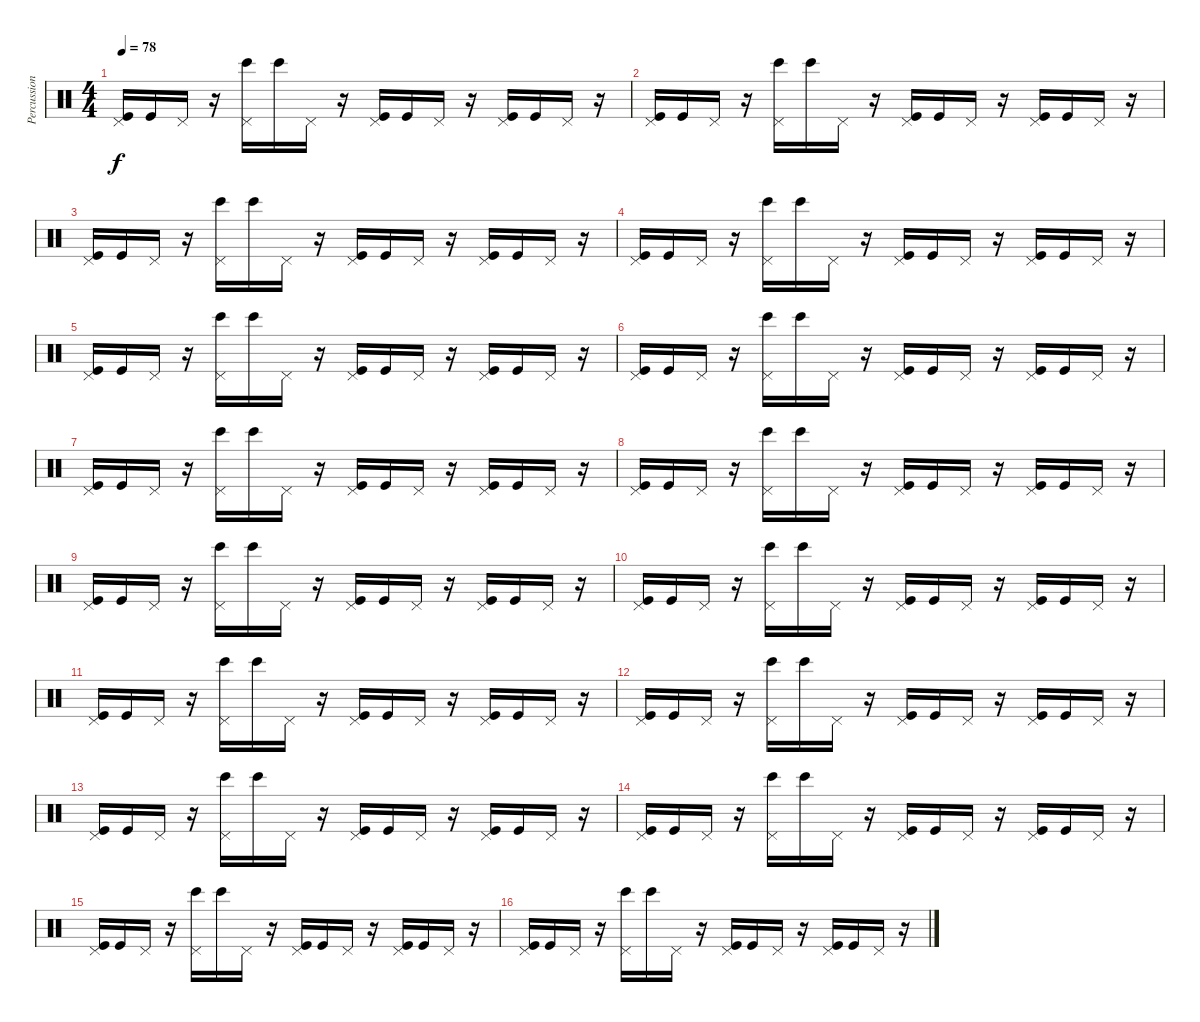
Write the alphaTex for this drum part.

\track ("Percussions" "Percussion") {instrument percussion}
\staff {score}
\articulation defaults
\ts (4 4)
\tempo 78
\clef neutral
\ks c
("Kick (hit)" "Pedal Hi-Hat (hit)").16{dy f} "Kick (hit)".16 "Pedal Hi-Hat (hit)".16 r.16 ("Bongo High (hit)" "Pedal Hi-Hat (hit)").16 "Bongo High (hit)".16 "Pedal Hi-Hat (hit)".16 r.16 ("Kick (hit)" "Pedal Hi-Hat (hit)").16 "Kick (hit)".16 "Pedal Hi-Hat (hit)".16 r.16 ("Kick (hit)" "Pedal Hi-Hat (hit)").16 "Kick (hit)".16 "Pedal Hi-Hat (hit)".16 r.16 |
("Kick (hit)" "Pedal Hi-Hat (hit)").16 "Kick (hit)".16 "Pedal Hi-Hat (hit)".16 r.16 ("Bongo High (hit)" "Pedal Hi-Hat (hit)").16 "Bongo High (hit)".16 "Pedal Hi-Hat (hit)".16 r.16 ("Kick (hit)" "Pedal Hi-Hat (hit)").16 "Kick (hit)".16 "Pedal Hi-Hat (hit)".16 r.16 ("Kick (hit)" "Pedal Hi-Hat (hit)").16 "Kick (hit)".16 "Pedal Hi-Hat (hit)".16 r.16 |
("Kick (hit)" "Pedal Hi-Hat (hit)").16 "Kick (hit)".16 "Pedal Hi-Hat (hit)".16 r.16 ("Bongo High (hit)" "Pedal Hi-Hat (hit)").16 "Bongo High (hit)".16 "Pedal Hi-Hat (hit)".16 r.16 ("Kick (hit)" "Pedal Hi-Hat (hit)").16 "Kick (hit)".16 "Pedal Hi-Hat (hit)".16 r.16 ("Kick (hit)" "Pedal Hi-Hat (hit)").16 "Kick (hit)".16 "Pedal Hi-Hat (hit)".16 r.16 |
("Kick (hit)" "Pedal Hi-Hat (hit)").16 "Kick (hit)".16 "Pedal Hi-Hat (hit)".16 r.16 ("Bongo High (hit)" "Pedal Hi-Hat (hit)").16 "Bongo High (hit)".16 "Pedal Hi-Hat (hit)".16 r.16 ("Kick (hit)" "Pedal Hi-Hat (hit)").16 "Kick (hit)".16 "Pedal Hi-Hat (hit)".16 r.16 ("Kick (hit)" "Pedal Hi-Hat (hit)").16 "Kick (hit)".16 "Pedal Hi-Hat (hit)".16 r.16 |
("Kick (hit)" "Pedal Hi-Hat (hit)").16 "Kick (hit)".16 "Pedal Hi-Hat (hit)".16 r.16 ("Bongo High (hit)" "Pedal Hi-Hat (hit)").16 "Bongo High (hit)".16 "Pedal Hi-Hat (hit)".16 r.16 ("Kick (hit)" "Pedal Hi-Hat (hit)").16 "Kick (hit)".16 "Pedal Hi-Hat (hit)".16 r.16 ("Kick (hit)" "Pedal Hi-Hat (hit)").16 "Kick (hit)".16 "Pedal Hi-Hat (hit)".16 r.16 |
("Kick (hit)" "Pedal Hi-Hat (hit)").16 "Kick (hit)".16 "Pedal Hi-Hat (hit)".16 r.16 ("Bongo High (hit)" "Pedal Hi-Hat (hit)").16 "Bongo High (hit)".16 "Pedal Hi-Hat (hit)".16 r.16 ("Kick (hit)" "Pedal Hi-Hat (hit)").16 "Kick (hit)".16 "Pedal Hi-Hat (hit)".16 r.16 ("Kick (hit)" "Pedal Hi-Hat (hit)").16 "Kick (hit)".16 "Pedal Hi-Hat (hit)".16 r.16 |
("Kick (hit)" "Pedal Hi-Hat (hit)").16 "Kick (hit)".16 "Pedal Hi-Hat (hit)".16 r.16 ("Bongo High (hit)" "Pedal Hi-Hat (hit)").16 "Bongo High (hit)".16 "Pedal Hi-Hat (hit)".16 r.16 ("Kick (hit)" "Pedal Hi-Hat (hit)").16 "Kick (hit)".16 "Pedal Hi-Hat (hit)".16 r.16 ("Kick (hit)" "Pedal Hi-Hat (hit)").16 "Kick (hit)".16 "Pedal Hi-Hat (hit)".16 r.16 |
("Kick (hit)" "Pedal Hi-Hat (hit)").16 "Kick (hit)".16 "Pedal Hi-Hat (hit)".16 r.16 ("Bongo High (hit)" "Pedal Hi-Hat (hit)").16 "Bongo High (hit)".16 "Pedal Hi-Hat (hit)".16 r.16 ("Kick (hit)" "Pedal Hi-Hat (hit)").16 "Kick (hit)".16 "Pedal Hi-Hat (hit)".16 r.16 ("Kick (hit)" "Pedal Hi-Hat (hit)").16 "Kick (hit)".16 "Pedal Hi-Hat (hit)".16 r.16 |
("Kick (hit)" "Pedal Hi-Hat (hit)").16 "Kick (hit)".16 "Pedal Hi-Hat (hit)".16 r.16 ("Bongo High (hit)" "Pedal Hi-Hat (hit)").16 "Bongo High (hit)".16 "Pedal Hi-Hat (hit)".16 r.16 ("Kick (hit)" "Pedal Hi-Hat (hit)").16 "Kick (hit)".16 "Pedal Hi-Hat (hit)".16 r.16 ("Kick (hit)" "Pedal Hi-Hat (hit)").16 "Kick (hit)".16 "Pedal Hi-Hat (hit)".16 r.16 |
("Kick (hit)" "Pedal Hi-Hat (hit)").16 "Kick (hit)".16 "Pedal Hi-Hat (hit)".16 r.16 ("Bongo High (hit)" "Pedal Hi-Hat (hit)").16 "Bongo High (hit)".16 "Pedal Hi-Hat (hit)".16 r.16 ("Kick (hit)" "Pedal Hi-Hat (hit)").16 "Kick (hit)".16 "Pedal Hi-Hat (hit)".16 r.16 ("Kick (hit)" "Pedal Hi-Hat (hit)").16 "Kick (hit)".16 "Pedal Hi-Hat (hit)".16 r.16 |
("Kick (hit)" "Pedal Hi-Hat (hit)").16 "Kick (hit)".16 "Pedal Hi-Hat (hit)".16 r.16 ("Bongo High (hit)" "Pedal Hi-Hat (hit)").16 "Bongo High (hit)".16 "Pedal Hi-Hat (hit)".16 r.16 ("Kick (hit)" "Pedal Hi-Hat (hit)").16 "Kick (hit)".16 "Pedal Hi-Hat (hit)".16 r.16 ("Kick (hit)" "Pedal Hi-Hat (hit)").16 "Kick (hit)".16 "Pedal Hi-Hat (hit)".16 r.16 |
("Kick (hit)" "Pedal Hi-Hat (hit)").16 "Kick (hit)".16 "Pedal Hi-Hat (hit)".16 r.16 ("Bongo High (hit)" "Pedal Hi-Hat (hit)").16 "Bongo High (hit)".16 "Pedal Hi-Hat (hit)".16 r.16 ("Kick (hit)" "Pedal Hi-Hat (hit)").16 "Kick (hit)".16 "Pedal Hi-Hat (hit)".16 r.16 ("Kick (hit)" "Pedal Hi-Hat (hit)").16 "Kick (hit)".16 "Pedal Hi-Hat (hit)".16 r.16 |
("Kick (hit)" "Pedal Hi-Hat (hit)").16 "Kick (hit)".16 "Pedal Hi-Hat (hit)".16 r.16 ("Bongo High (hit)" "Pedal Hi-Hat (hit)").16 "Bongo High (hit)".16 "Pedal Hi-Hat (hit)".16 r.16 ("Kick (hit)" "Pedal Hi-Hat (hit)").16 "Kick (hit)".16 "Pedal Hi-Hat (hit)".16 r.16 ("Kick (hit)" "Pedal Hi-Hat (hit)").16 "Kick (hit)".16 "Pedal Hi-Hat (hit)".16 r.16 |
("Kick (hit)" "Pedal Hi-Hat (hit)").16 "Kick (hit)".16 "Pedal Hi-Hat (hit)".16 r.16 ("Bongo High (hit)" "Pedal Hi-Hat (hit)").16 "Bongo High (hit)".16 "Pedal Hi-Hat (hit)".16 r.16 ("Kick (hit)" "Pedal Hi-Hat (hit)").16 "Kick (hit)".16 "Pedal Hi-Hat (hit)".16 r.16 ("Kick (hit)" "Pedal Hi-Hat (hit)").16 "Kick (hit)".16 "Pedal Hi-Hat (hit)".16 r.16 |
("Kick (hit)" "Pedal Hi-Hat (hit)").16 "Kick (hit)".16 "Pedal Hi-Hat (hit)".16 r.16 ("Bongo High (hit)" "Pedal Hi-Hat (hit)").16 "Bongo High (hit)".16 "Pedal Hi-Hat (hit)".16 r.16 ("Kick (hit)" "Pedal Hi-Hat (hit)").16 "Kick (hit)".16 "Pedal Hi-Hat (hit)".16 r.16 ("Kick (hit)" "Pedal Hi-Hat (hit)").16 "Kick (hit)".16 "Pedal Hi-Hat (hit)".16 r.16 |
("Kick (hit)" "Pedal Hi-Hat (hit)").16 "Kick (hit)".16 "Pedal Hi-Hat (hit)".16 r.16 ("Bongo High (hit)" "Pedal Hi-Hat (hit)").16 "Bongo High (hit)".16 "Pedal Hi-Hat (hit)".16 r.16 ("Kick (hit)" "Pedal Hi-Hat (hit)").16 "Kick (hit)".16 "Pedal Hi-Hat (hit)".16 r.16 ("Kick (hit)" "Pedal Hi-Hat (hit)").16 "Kick (hit)".16 "Pedal Hi-Hat (hit)".16 r.16
